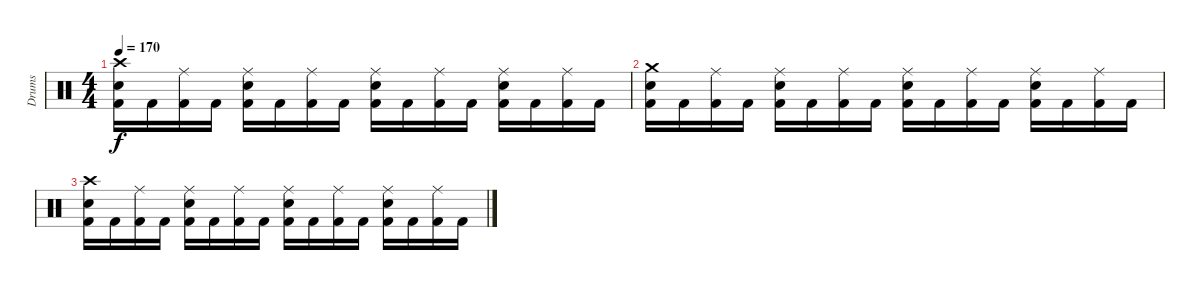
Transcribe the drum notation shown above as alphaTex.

\track ("Drums" "Drums") {instrument percussion}
\staff {score}
\articulation defaults
\ts (4 4)
\tempo 170
\clef neutral
\ks c
("Crash high (hit)" "Electric Snare (hit)" "Kick (hit) 2").16{dy f volume 3} "Kick (hit) 2".16 ("Ride (middle)" "Kick (hit) 2").16 "Kick (hit) 2".16 ("Ride (middle)" "Electric Snare (hit)" "Kick (hit) 2").16 "Kick (hit) 2".16 ("Ride (middle)" "Kick (hit) 2").16 "Kick (hit) 2".16 ("Ride (middle)" "Electric Snare (hit)" "Kick (hit) 2").16 "Kick (hit) 2".16 ("Ride (middle)" "Kick (hit) 2").16 "Kick (hit) 2".16 ("Ride (middle)" "Electric Snare (hit)" "Kick (hit) 2").16 "Kick (hit) 2".16 ("Ride (middle)" "Kick (hit) 2").16 "Kick (hit) 2".16 |
("Crash medium (hit)" "Electric Snare (hit)" "Kick (hit) 2").16{volume 2} "Kick (hit) 2".16 ("Ride (middle)" "Kick (hit) 2").16 "Kick (hit) 2".16 ("Ride (middle)" "Electric Snare (hit)" "Kick (hit) 2").16 "Kick (hit) 2".16 ("Ride (middle)" "Kick (hit) 2").16 "Kick (hit) 2".16 ("Ride (middle)" "Electric Snare (hit)" "Kick (hit) 2").16 "Kick (hit) 2".16 ("Ride (middle)" "Kick (hit) 2").16 "Kick (hit) 2".16 ("Ride (middle)" "Electric Snare (hit)" "Kick (hit) 2").16 "Kick (hit) 2".16 ("Ride (middle)" "Kick (hit) 2").16 "Kick (hit) 2".16 |
("Crash high (hit)" "Electric Snare (hit)" "Kick (hit) 2").16{volume 1} "Kick (hit) 2".16 ("Ride (middle)" "Kick (hit) 2").16 "Kick (hit) 2".16 ("Ride (middle)" "Electric Snare (hit)" "Kick (hit) 2").16 "Kick (hit) 2".16 ("Ride (middle)" "Kick (hit) 2").16 "Kick (hit) 2".16 ("Ride (middle)" "Electric Snare (hit)" "Kick (hit) 2").16 "Kick (hit) 2".16 ("Ride (middle)" "Kick (hit) 2").16 "Kick (hit) 2".16 ("Ride (middle)" "Electric Snare (hit)" "Kick (hit) 2").16 "Kick (hit) 2".16 ("Ride (middle)" "Kick (hit) 2").16 "Kick (hit) 2".16
